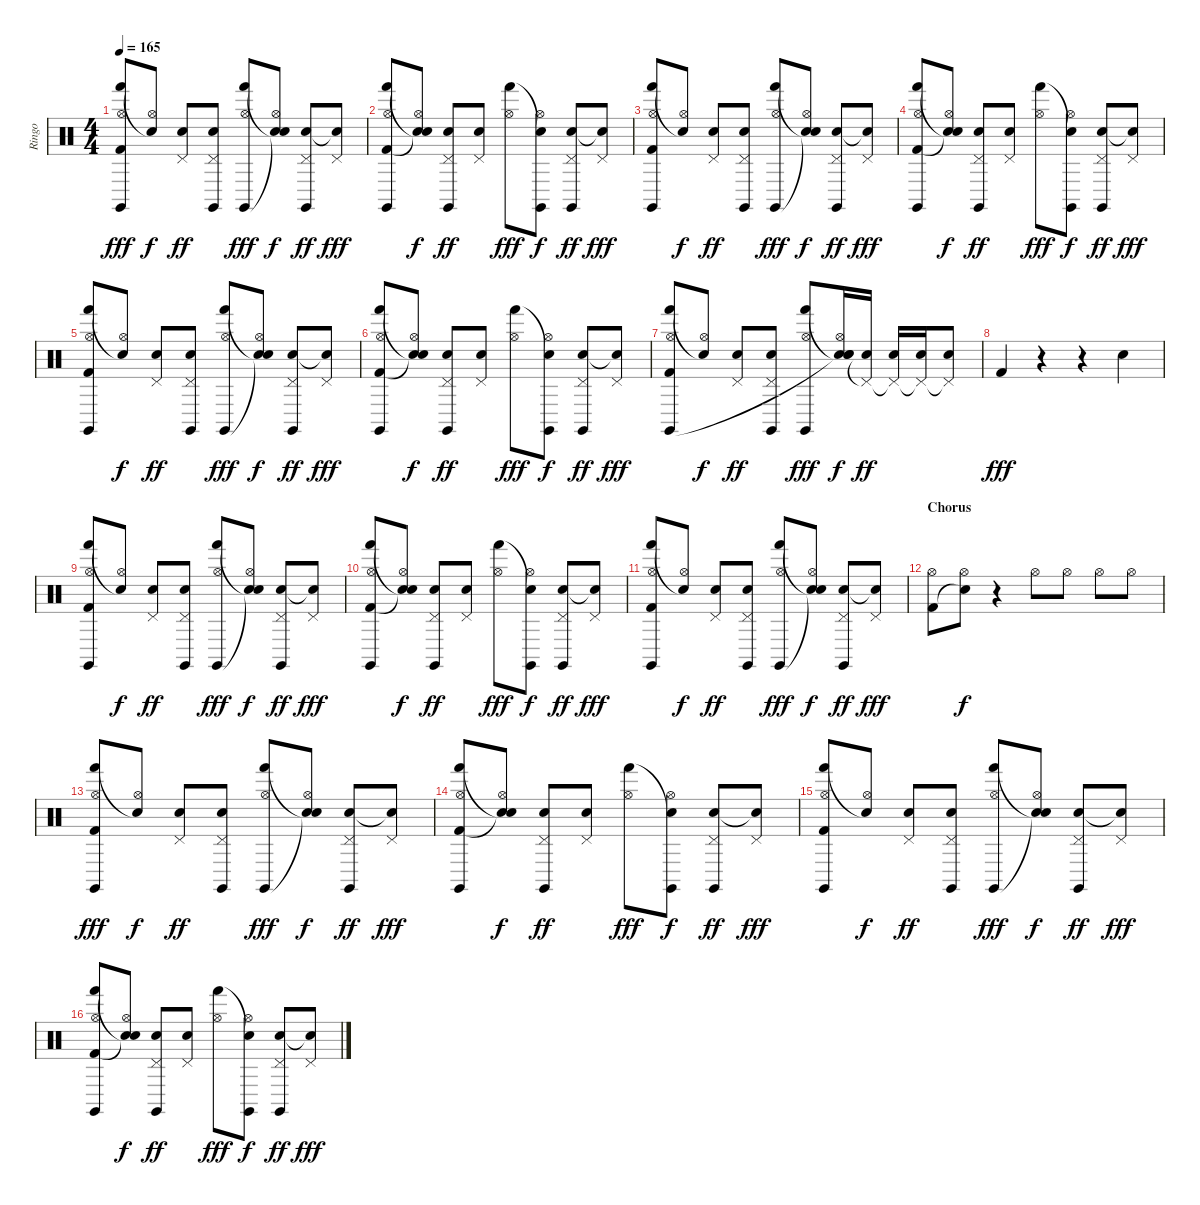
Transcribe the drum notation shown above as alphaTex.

\track ("Ringo" "Ringo") {instrument percussion}
\staff {score}
\articulation defaults
\ts (4 4)
\tempo 165
\clef neutral
\ks c
("Hand (hit)" "Hi-Hat (open)" "Kick (hit) 2" "Claves (hit)").8{dy fff} ("Snare (hit)"{t} "Hi-Hat (open)").8{dy f} ("Pedal Hi-Hat (hit)" "Snare (hit) 2").8{dy ff} ("Pedal Hi-Hat (hit)" "Snare (hit) 2" "Claves (hit)").8 ("Hand (hit)" "Hi-Hat (open)" "Claves (hit)").8{dy fff} ("Snare (hit)"{t} "Hi-Hat (open)" "Snare (hit)"{t}).8{dy f} ("Pedal Hi-Hat (hit)" "Snare (hit) 2" "Claves (hit)").8{dy ff} ("Pedal Hi-Hat (hit)" "Snare (hit)"{t}).8{dy fff} |
("Hand (hit)" "Hi-Hat (open)" "Kick (hit) 2" "Claves (hit)").8 ("Snare (hit)"{t} "Hi-Hat (open)" "Snare (hit)"{t}).8{dy f} ("Pedal Hi-Hat (hit)" "Snare (hit) 2" "Claves (hit)").8{dy ff} ("Pedal Hi-Hat (hit)" "Snare (hit) 2").8 ("Hand (hit)" "Hi-Hat (open)").8{dy fff} ("Snare (hit)"{t} "Hi-Hat (open)" "Claves (hit)").8{dy f} ("Pedal Hi-Hat (hit)" "Snare (hit) 2" "Claves (hit)").8{dy ff} ("Pedal Hi-Hat (hit)" "Snare (hit)"{t}).8{dy fff} |
("Hand (hit)" "Hi-Hat (open)" "Kick (hit) 2" "Claves (hit)").8 ("Snare (hit)"{t} "Hi-Hat (open)").8{dy f} ("Pedal Hi-Hat (hit)" "Snare (hit) 2").8{dy ff} ("Pedal Hi-Hat (hit)" "Snare (hit) 2" "Claves (hit)").8 ("Hand (hit)" "Hi-Hat (open)" "Claves (hit)").8{dy fff} ("Snare (hit)"{t} "Hi-Hat (open)" "Snare (hit)"{t}).8{dy f} ("Pedal Hi-Hat (hit)" "Snare (hit) 2" "Claves (hit)").8{dy ff} ("Pedal Hi-Hat (hit)" "Snare (hit)"{t}).8{dy fff} |
("Hand (hit)" "Hi-Hat (open)" "Kick (hit) 2" "Claves (hit)").8 ("Snare (hit)"{t} "Hi-Hat (open)" "Snare (hit)"{t}).8{dy f} ("Pedal Hi-Hat (hit)" "Snare (hit) 2" "Claves (hit)").8{dy ff} ("Pedal Hi-Hat (hit)" "Snare (hit) 2").8 ("Hand (hit)" "Hi-Hat (open)").8{dy fff} ("Snare (hit)"{t} "Hi-Hat (open)" "Claves (hit)").8{dy f} ("Pedal Hi-Hat (hit)" "Snare (hit) 2" "Claves (hit)").8{dy ff} ("Pedal Hi-Hat (hit)" "Snare (hit)"{t}).8{dy fff} |
("Hand (hit)" "Hi-Hat (open)" "Kick (hit) 2" "Claves (hit)").8 ("Snare (hit)"{t} "Hi-Hat (open)").8{dy f} ("Pedal Hi-Hat (hit)" "Snare (hit) 2").8{dy ff} ("Pedal Hi-Hat (hit)" "Snare (hit) 2" "Claves (hit)").8 ("Hand (hit)" "Hi-Hat (open)" "Claves (hit)").8{dy fff} ("Snare (hit)"{t} "Hi-Hat (open)" "Snare (hit)"{t}).8{dy f} ("Pedal Hi-Hat (hit)" "Snare (hit) 2" "Claves (hit)").8{dy ff} ("Pedal Hi-Hat (hit)" "Snare (hit)"{t}).8{dy fff} |
("Hand (hit)" "Hi-Hat (open)" "Kick (hit) 2" "Claves (hit)").8 ("Snare (hit)"{t} "Hi-Hat (open)" "Snare (hit)"{t}).8{dy f} ("Pedal Hi-Hat (hit)" "Snare (hit) 2" "Claves (hit)").8{dy ff} ("Pedal Hi-Hat (hit)" "Snare (hit) 2").8 ("Hand (hit)" "Hi-Hat (open)").8{dy fff} ("Snare (hit)"{t} "Hi-Hat (open)" "Claves (hit)").8{dy f} ("Pedal Hi-Hat (hit)" "Snare (hit) 2" "Claves (hit)").8{dy ff} ("Pedal Hi-Hat (hit)" "Snare (hit)"{t}).8{dy fff} |
("Hand (hit)" "Hi-Hat (open)" "Kick (hit) 2" "Claves (hit)").8 ("Snare (hit)"{t} "Hi-Hat (open)").8{dy f} ("Pedal Hi-Hat (hit)" "Snare (hit) 2").8{dy ff} ("Pedal Hi-Hat (hit)" "Snare (hit) 2" "Claves (hit)").8 ("Hand (hit)" "Hi-Hat (open)" "Claves (hit)").8{dy fff} ("Snare (hit)"{t} "Hi-Hat (open)" "Snare (hit) 2" "Snare (hit)"{t}).16{dy f} ("Pedal Hi-Hat (hit)"{t} "Snare (hit) 2").16{dy ff} ("Pedal Hi-Hat (hit)"{t} "Snare (hit) 2").16 ("Pedal Hi-Hat (hit)"{t} "Snare (hit) 2").16 ("Pedal Hi-Hat (hit)"{t} "Snare (hit) 2").8 |
"Kick (hit) 2".4{dy fff} r.4 r.4 "Snare (hit) 2".4 |
("Hand (hit)" "Hi-Hat (open)" "Kick (hit) 2" "Claves (hit)").8 ("Snare (hit)"{t} "Hi-Hat (open)").8{dy f} ("Pedal Hi-Hat (hit)" "Snare (hit) 2").8{dy ff} ("Pedal Hi-Hat (hit)" "Snare (hit) 2" "Claves (hit)").8 ("Hand (hit)" "Hi-Hat (open)" "Claves (hit)").8{dy fff} ("Snare (hit)"{t} "Hi-Hat (open)" "Snare (hit)"{t}).8{dy f} ("Pedal Hi-Hat (hit)" "Snare (hit) 2" "Claves (hit)").8{dy ff} ("Pedal Hi-Hat (hit)" "Snare (hit)"{t}).8{dy fff} |
("Hand (hit)" "Hi-Hat (open)" "Kick (hit) 2" "Claves (hit)").8 ("Snare (hit)"{t} "Hi-Hat (open)" "Snare (hit)"{t}).8{dy f} ("Pedal Hi-Hat (hit)" "Snare (hit) 2" "Claves (hit)").8{dy ff} ("Pedal Hi-Hat (hit)" "Snare (hit) 2").8 ("Hand (hit)" "Hi-Hat (open)").8{dy fff} ("Snare (hit)"{t} "Hi-Hat (open)" "Claves (hit)").8{dy f} ("Pedal Hi-Hat (hit)" "Snare (hit) 2" "Claves (hit)").8{dy ff} ("Pedal Hi-Hat (hit)" "Snare (hit)"{t}).8{dy fff} |
("Hand (hit)" "Hi-Hat (open)" "Kick (hit) 2" "Claves (hit)").8 ("Snare (hit)"{t} "Hi-Hat (open)").8{dy f} ("Pedal Hi-Hat (hit)" "Snare (hit) 2").8{dy ff} ("Pedal Hi-Hat (hit)" "Snare (hit) 2" "Claves (hit)").8 ("Hand (hit)" "Hi-Hat (open)" "Claves (hit)").8{dy fff} ("Snare (hit)"{t} "Hi-Hat (open)" "Snare (hit)"{t}).8{dy f} ("Pedal Hi-Hat (hit)" "Snare (hit) 2" "Claves (hit)").8{dy ff} ("Pedal Hi-Hat (hit)" "Snare (hit)"{t}).8{dy fff} |
\section ("" "Chorus")
("Hi-Hat (open)" "Kick (hit) 2").8 ("Hi-Hat (open)" "Snare (hit)"{t}).8{dy f} r.4 "Hi-Hat (open)".8 "Hi-Hat (open)".8 "Hi-Hat (open)".8 "Hi-Hat (open)".8 |
("Hand (hit)" "Hi-Hat (open)" "Kick (hit) 2" "Claves (hit)").8{dy fff} ("Snare (hit)"{t} "Hi-Hat (open)").8{dy f} ("Pedal Hi-Hat (hit)" "Snare (hit) 2").8{dy ff} ("Pedal Hi-Hat (hit)" "Snare (hit) 2" "Claves (hit)").8 ("Hand (hit)" "Hi-Hat (open)" "Claves (hit)").8{dy fff} ("Snare (hit)"{t} "Hi-Hat (open)" "Snare (hit)"{t}).8{dy f} ("Pedal Hi-Hat (hit)" "Snare (hit) 2" "Claves (hit)").8{dy ff} ("Pedal Hi-Hat (hit)" "Snare (hit)"{t}).8{dy fff} |
("Hand (hit)" "Hi-Hat (open)" "Kick (hit) 2" "Claves (hit)").8 ("Snare (hit)"{t} "Hi-Hat (open)" "Snare (hit)"{t}).8{dy f} ("Pedal Hi-Hat (hit)" "Snare (hit) 2" "Claves (hit)").8{dy ff} ("Pedal Hi-Hat (hit)" "Snare (hit) 2").8 ("Hand (hit)" "Hi-Hat (open)").8{dy fff} ("Snare (hit)"{t} "Hi-Hat (open)" "Claves (hit)").8{dy f} ("Pedal Hi-Hat (hit)" "Snare (hit) 2" "Claves (hit)").8{dy ff} ("Pedal Hi-Hat (hit)" "Snare (hit)"{t}).8{dy fff} |
("Hand (hit)" "Hi-Hat (open)" "Kick (hit) 2" "Claves (hit)").8 ("Snare (hit)"{t} "Hi-Hat (open)").8{dy f} ("Pedal Hi-Hat (hit)" "Snare (hit) 2").8{dy ff} ("Pedal Hi-Hat (hit)" "Snare (hit) 2" "Claves (hit)").8 ("Hand (hit)" "Hi-Hat (open)" "Claves (hit)").8{dy fff} ("Snare (hit)"{t} "Hi-Hat (open)" "Snare (hit)"{t}).8{dy f} ("Pedal Hi-Hat (hit)" "Snare (hit) 2" "Claves (hit)").8{dy ff} ("Pedal Hi-Hat (hit)" "Snare (hit)"{t}).8{dy fff} |
("Hand (hit)" "Hi-Hat (open)" "Kick (hit) 2" "Claves (hit)").8 ("Snare (hit)"{t} "Hi-Hat (open)" "Snare (hit)"{t}).8{dy f} ("Pedal Hi-Hat (hit)" "Snare (hit) 2" "Claves (hit)").8{dy ff} ("Pedal Hi-Hat (hit)" "Snare (hit) 2").8 ("Hand (hit)" "Hi-Hat (open)").8{dy fff} ("Snare (hit)"{t} "Hi-Hat (open)" "Claves (hit)").8{dy f} ("Pedal Hi-Hat (hit)" "Snare (hit) 2" "Claves (hit)").8{dy ff} ("Pedal Hi-Hat (hit)" "Snare (hit)"{t}).8{dy fff}
